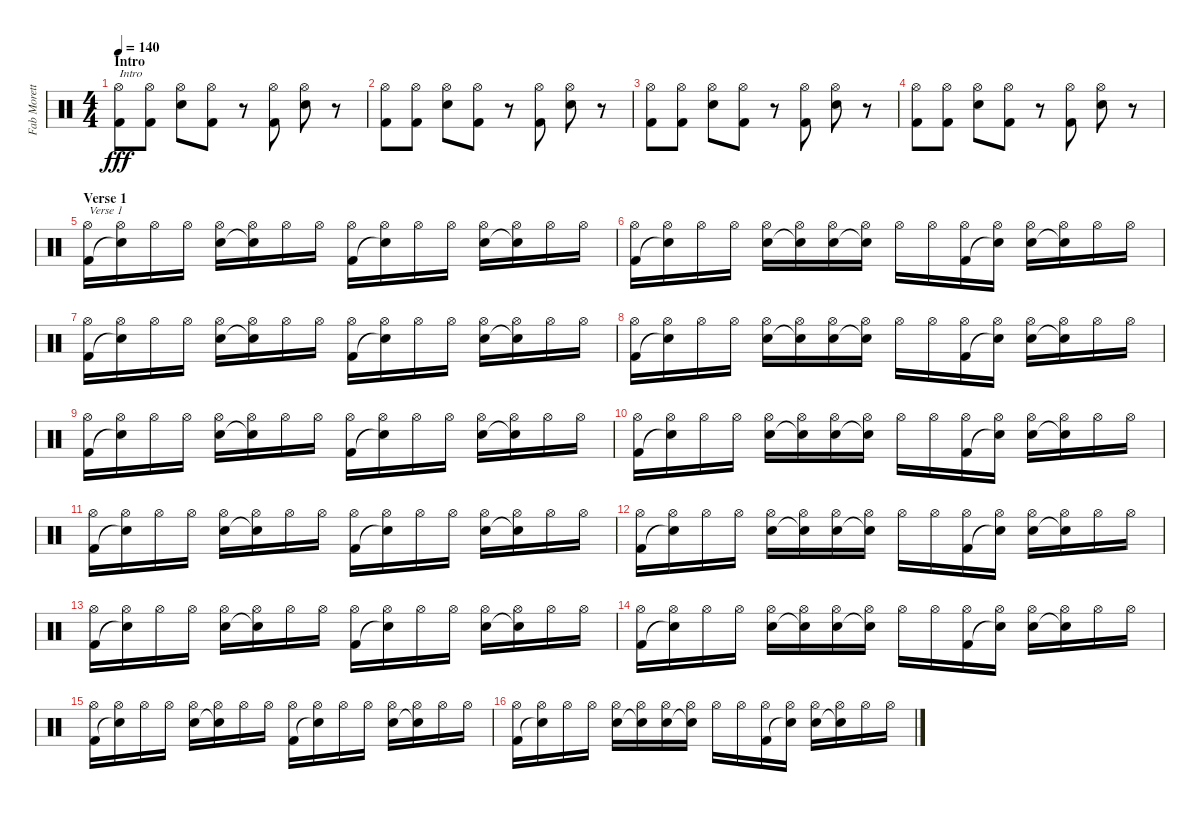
\track ("Fab Moretti" "Fab Morett") {instrument percussion}
\staff {score}
\articulation defaults
\ts (4 4)
\section ("" "Intro")
\tempo 140
\clef neutral
\ks c
("Hi-Hat (open)" "Kick (hit) 2").8{txt "Intro" dy fff} ("Hi-Hat (open)" "Kick (hit) 2").8 ("Hi-Hat (open)" "Snare (hit) 2").8 ("Hi-Hat (open)" "Kick (hit) 2").8 r.8 ("Hi-Hat (open)" "Kick (hit) 2").8 ("Hi-Hat (open)" "Snare (hit) 2").8 r.8 |
("Hi-Hat (open)" "Kick (hit) 2").8 ("Hi-Hat (open)" "Kick (hit) 2").8 ("Hi-Hat (open)" "Snare (hit) 2").8 ("Hi-Hat (open)" "Kick (hit) 2").8 r.8 ("Hi-Hat (open)" "Kick (hit) 2").8 ("Hi-Hat (open)" "Snare (hit) 2").8 r.8 |
("Hi-Hat (open)" "Kick (hit) 2").8 ("Hi-Hat (open)" "Kick (hit) 2").8 ("Hi-Hat (open)" "Snare (hit) 2").8 ("Hi-Hat (open)" "Kick (hit) 2").8 r.8 ("Hi-Hat (open)" "Kick (hit) 2").8 ("Hi-Hat (open)" "Snare (hit) 2").8 r.8 |
("Hi-Hat (open)" "Kick (hit) 2").8 ("Hi-Hat (open)" "Kick (hit) 2").8 ("Hi-Hat (open)" "Snare (hit) 2").8 ("Hi-Hat (open)" "Kick (hit) 2").8 r.8 ("Hi-Hat (open)" "Kick (hit) 2").8 ("Hi-Hat (open)" "Snare (hit) 2").8 r.8 |
\section ("" "Verse 1")
("Hi-Hat (open)" "Kick (hit) 2").16{txt "Verse 1"} ("Hi-Hat (open)" "Snare (hit) 2"{t}).16 "Hi-Hat (open)".16 "Hi-Hat (open)".16 ("Hi-Hat (open)" "Snare (hit) 2").16 ("Hi-Hat (open)" "Snare (hit)"{t}).16 "Hi-Hat (open)".16 "Hi-Hat (open)".16 ("Hi-Hat (open)" "Kick (hit) 2").16 ("Hi-Hat (open)" "Snare (hit)"{t}).16 "Hi-Hat (open)".16 "Hi-Hat (open)".16 ("Hi-Hat (open)" "Snare (hit) 2").16 ("Hi-Hat (open)" "Snare (hit)"{t}).16 "Hi-Hat (open)".16 "Hi-Hat (open)".16 |
("Hi-Hat (open)" "Kick (hit) 2").16 ("Hi-Hat (open)" "Snare (hit) 2"{t}).16 "Hi-Hat (open)".16 "Hi-Hat (open)".16 ("Hi-Hat (open)" "Snare (hit) 2").16 ("Hi-Hat (open)" "Snare (hit)"{t}).16 ("Hi-Hat (open)" "Snare (hit) 2").16 ("Hi-Hat (open)" "Snare (hit)"{t}).16 "Hi-Hat (open)".16 "Hi-Hat (open)".16 ("Hi-Hat (open)" "Kick (hit) 2").16 ("Hi-Hat (open)" "Snare (hit)"{t}).16 ("Hi-Hat (open)" "Snare (hit) 2").16 ("Hi-Hat (open)" "Snare (hit)"{t}).16 "Hi-Hat (open)".16 "Hi-Hat (open)".16 |
("Hi-Hat (open)" "Kick (hit) 2").16 ("Hi-Hat (open)" "Snare (hit) 2"{t}).16 "Hi-Hat (open)".16 "Hi-Hat (open)".16 ("Hi-Hat (open)" "Snare (hit) 2").16 ("Hi-Hat (open)" "Snare (hit)"{t}).16 "Hi-Hat (open)".16 "Hi-Hat (open)".16 ("Hi-Hat (open)" "Kick (hit) 2").16 ("Hi-Hat (open)" "Snare (hit)"{t}).16 "Hi-Hat (open)".16 "Hi-Hat (open)".16 ("Hi-Hat (open)" "Snare (hit) 2").16 ("Hi-Hat (open)" "Snare (hit)"{t}).16 "Hi-Hat (open)".16 "Hi-Hat (open)".16 |
("Hi-Hat (open)" "Kick (hit) 2").16 ("Hi-Hat (open)" "Snare (hit) 2"{t}).16 "Hi-Hat (open)".16 "Hi-Hat (open)".16 ("Hi-Hat (open)" "Snare (hit) 2").16 ("Hi-Hat (open)" "Snare (hit)"{t}).16 ("Hi-Hat (open)" "Snare (hit) 2").16 ("Hi-Hat (open)" "Snare (hit)"{t}).16 "Hi-Hat (open)".16 "Hi-Hat (open)".16 ("Hi-Hat (open)" "Kick (hit) 2").16 ("Hi-Hat (open)" "Snare (hit)"{t}).16 ("Hi-Hat (open)" "Snare (hit) 2").16 ("Hi-Hat (open)" "Snare (hit)"{t}).16 "Hi-Hat (open)".16 "Hi-Hat (open)".16 |
("Hi-Hat (open)" "Kick (hit) 2").16 ("Hi-Hat (open)" "Snare (hit) 2"{t}).16 "Hi-Hat (open)".16 "Hi-Hat (open)".16 ("Hi-Hat (open)" "Snare (hit) 2").16 ("Hi-Hat (open)" "Snare (hit)"{t}).16 "Hi-Hat (open)".16 "Hi-Hat (open)".16 ("Hi-Hat (open)" "Kick (hit) 2").16 ("Hi-Hat (open)" "Snare (hit)"{t}).16 "Hi-Hat (open)".16 "Hi-Hat (open)".16 ("Hi-Hat (open)" "Snare (hit) 2").16 ("Hi-Hat (open)" "Snare (hit)"{t}).16 "Hi-Hat (open)".16 "Hi-Hat (open)".16 |
("Hi-Hat (open)" "Kick (hit) 2").16 ("Hi-Hat (open)" "Snare (hit) 2"{t}).16 "Hi-Hat (open)".16 "Hi-Hat (open)".16 ("Hi-Hat (open)" "Snare (hit) 2").16 ("Hi-Hat (open)" "Snare (hit)"{t}).16 ("Hi-Hat (open)" "Snare (hit) 2").16 ("Hi-Hat (open)" "Snare (hit)"{t}).16 "Hi-Hat (open)".16 "Hi-Hat (open)".16 ("Hi-Hat (open)" "Kick (hit) 2").16 ("Hi-Hat (open)" "Snare (hit)"{t}).16 ("Hi-Hat (open)" "Snare (hit) 2").16 ("Hi-Hat (open)" "Snare (hit)"{t}).16 "Hi-Hat (open)".16 "Hi-Hat (open)".16 |
("Hi-Hat (open)" "Kick (hit) 2").16 ("Hi-Hat (open)" "Snare (hit) 2"{t}).16 "Hi-Hat (open)".16 "Hi-Hat (open)".16 ("Hi-Hat (open)" "Snare (hit) 2").16 ("Hi-Hat (open)" "Snare (hit)"{t}).16 "Hi-Hat (open)".16 "Hi-Hat (open)".16 ("Hi-Hat (open)" "Kick (hit) 2").16 ("Hi-Hat (open)" "Snare (hit)"{t}).16 "Hi-Hat (open)".16 "Hi-Hat (open)".16 ("Hi-Hat (open)" "Snare (hit) 2").16 ("Hi-Hat (open)" "Snare (hit)"{t}).16 "Hi-Hat (open)".16 "Hi-Hat (open)".16 |
("Hi-Hat (open)" "Kick (hit) 2").16 ("Hi-Hat (open)" "Snare (hit) 2"{t}).16 "Hi-Hat (open)".16 "Hi-Hat (open)".16 ("Hi-Hat (open)" "Snare (hit) 2").16 ("Hi-Hat (open)" "Snare (hit)"{t}).16 ("Hi-Hat (open)" "Snare (hit) 2").16 ("Hi-Hat (open)" "Snare (hit)"{t}).16 "Hi-Hat (open)".16 "Hi-Hat (open)".16 ("Hi-Hat (open)" "Kick (hit) 2").16 ("Hi-Hat (open)" "Snare (hit)"{t}).16 ("Hi-Hat (open)" "Snare (hit) 2").16 ("Hi-Hat (open)" "Snare (hit)"{t}).16 "Hi-Hat (open)".16 "Hi-Hat (open)".16 |
("Hi-Hat (open)" "Kick (hit) 2").16 ("Hi-Hat (open)" "Snare (hit) 2"{t}).16 "Hi-Hat (open)".16 "Hi-Hat (open)".16 ("Hi-Hat (open)" "Snare (hit) 2").16 ("Hi-Hat (open)" "Snare (hit)"{t}).16 "Hi-Hat (open)".16 "Hi-Hat (open)".16 ("Hi-Hat (open)" "Kick (hit) 2").16 ("Hi-Hat (open)" "Snare (hit)"{t}).16 "Hi-Hat (open)".16 "Hi-Hat (open)".16 ("Hi-Hat (open)" "Snare (hit) 2").16 ("Hi-Hat (open)" "Snare (hit)"{t}).16 "Hi-Hat (open)".16 "Hi-Hat (open)".16 |
("Hi-Hat (open)" "Kick (hit) 2").16 ("Hi-Hat (open)" "Snare (hit) 2"{t}).16 "Hi-Hat (open)".16 "Hi-Hat (open)".16 ("Hi-Hat (open)" "Snare (hit) 2").16 ("Hi-Hat (open)" "Snare (hit)"{t}).16 ("Hi-Hat (open)" "Snare (hit) 2").16 ("Hi-Hat (open)" "Snare (hit)"{t}).16 "Hi-Hat (open)".16 "Hi-Hat (open)".16 ("Hi-Hat (open)" "Kick (hit) 2").16 ("Hi-Hat (open)" "Snare (hit)"{t}).16 ("Hi-Hat (open)" "Snare (hit) 2").16 ("Hi-Hat (open)" "Snare (hit)"{t}).16 "Hi-Hat (open)".16 "Hi-Hat (open)".16 |
("Hi-Hat (open)" "Kick (hit) 2").16 ("Hi-Hat (open)" "Snare (hit) 2"{t}).16 "Hi-Hat (open)".16 "Hi-Hat (open)".16 ("Hi-Hat (open)" "Snare (hit) 2").16 ("Hi-Hat (open)" "Snare (hit)"{t}).16 "Hi-Hat (open)".16 "Hi-Hat (open)".16 ("Hi-Hat (open)" "Kick (hit) 2").16 ("Hi-Hat (open)" "Snare (hit)"{t}).16 "Hi-Hat (open)".16 "Hi-Hat (open)".16 ("Hi-Hat (open)" "Snare (hit) 2").16 ("Hi-Hat (open)" "Snare (hit)"{t}).16 "Hi-Hat (open)".16 "Hi-Hat (open)".16 |
("Hi-Hat (open)" "Kick (hit) 2").16 ("Hi-Hat (open)" "Snare (hit) 2"{t}).16 "Hi-Hat (open)".16 "Hi-Hat (open)".16 ("Hi-Hat (open)" "Snare (hit) 2").16 ("Hi-Hat (open)" "Snare (hit)"{t}).16 ("Hi-Hat (open)" "Snare (hit) 2").16 ("Hi-Hat (open)" "Snare (hit)"{t}).16 "Hi-Hat (open)".16 "Hi-Hat (open)".16 ("Hi-Hat (open)" "Kick (hit) 2").16 ("Hi-Hat (open)" "Snare (hit)"{t}).16 ("Hi-Hat (open)" "Snare (hit) 2").16 ("Hi-Hat (open)" "Snare (hit)"{t}).16 "Hi-Hat (open)".16 "Hi-Hat (open)".16
